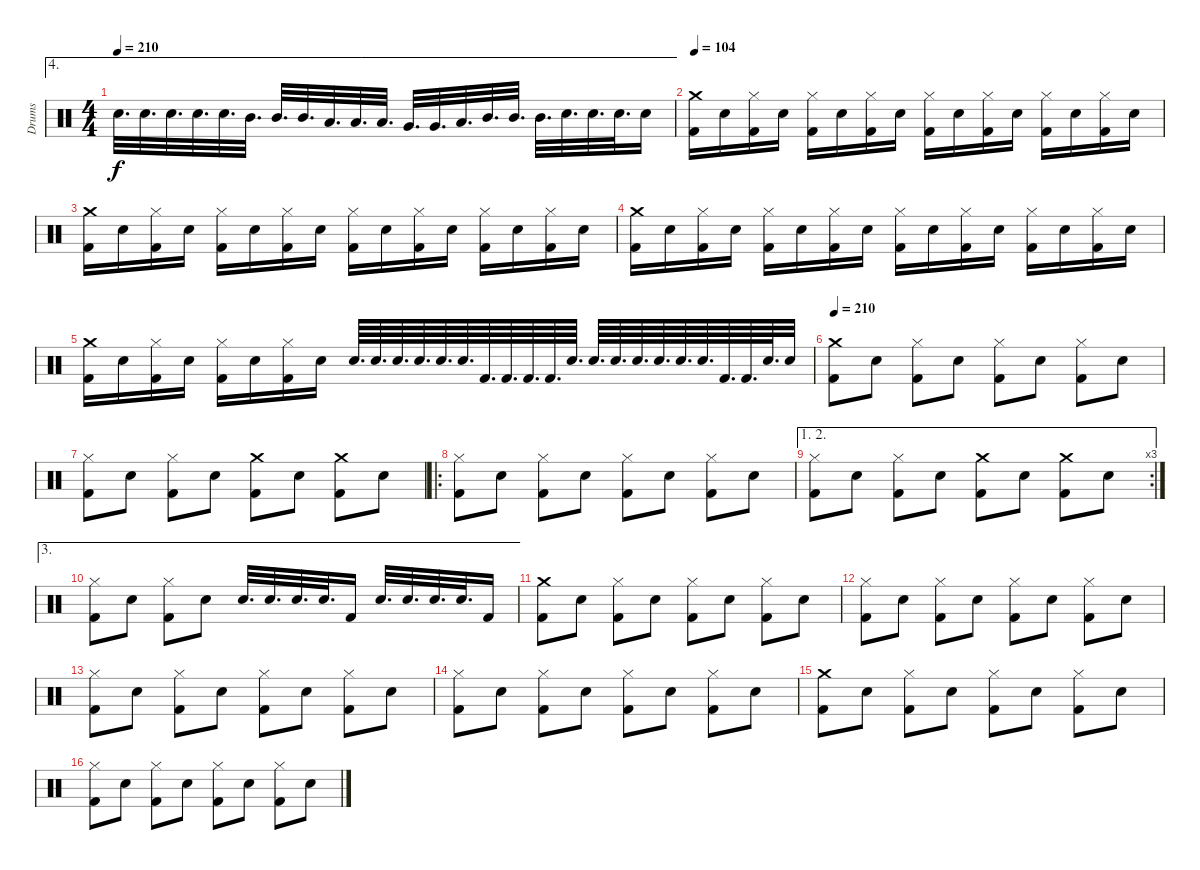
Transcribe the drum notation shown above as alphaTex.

\track ("Drums" "Drums") {instrument percussion}
\staff {score}
\articulation defaults
\ae 4
\ts (4 4)
\tempo 210
\clef neutral
\ks c "Electric Snare (hit)".32{d dy f} "Electric Snare (hit)".32{d} "Electric Snare (hit)".32{d} "Electric Snare (hit)".32{d} "Electric Snare (hit)".32{d} "Mid Tom (hit)".32{d} "Mid Tom (hit)".32{d} "Mid Tom (hit)".32{d} "Low Tom (hit)".32{d} "Low Tom (hit)".32{d} "Low Tom (hit)".32{d} "Very Low Tom (hit)".32{d} "Very Low Tom (hit)".32{d} "Low Tom (hit)".32{d} "Mid Tom (hit)".32{d} "Mid Tom (hit)".32{d} "Mid Tom (hit)".32{d} "Electric Snare (hit)".32{d} "Electric Snare (hit)".32{d} "Electric Snare (hit)".32{d} "Electric Snare (hit)".16
|
\tempo 104
("Crash medium (hit)" "Kick (hit) 2").16 "Electric Snare (hit)".16 ("Hi-Hat (closed)" "Kick (hit) 2").16 "Electric Snare (hit)".16 ("Hi-Hat (closed)" "Kick (hit) 2").16 "Electric Snare (hit)".16 ("Hi-Hat (closed)" "Kick (hit) 2").16 "Electric Snare (hit)".16 ("Hi-Hat (closed)" "Kick (hit) 2").16 "Electric Snare (hit)".16 ("Hi-Hat (closed)" "Kick (hit) 2").16 "Electric Snare (hit)".16 ("Hi-Hat (closed)" "Kick (hit) 2").16 "Electric Snare (hit)".16 ("Hi-Hat (closed)" "Kick (hit) 2").16 "Electric Snare (hit)".16 |
("Crash medium (hit)" "Kick (hit) 2").16 "Electric Snare (hit)".16 ("Hi-Hat (closed)" "Kick (hit) 2").16 "Electric Snare (hit)".16 ("Hi-Hat (closed)" "Kick (hit) 2").16 "Electric Snare (hit)".16 ("Hi-Hat (closed)" "Kick (hit) 2").16 "Electric Snare (hit)".16 ("Hi-Hat (closed)" "Kick (hit) 2").16 "Electric Snare (hit)".16 ("Hi-Hat (closed)" "Kick (hit) 2").16 "Electric Snare (hit)".16 ("Hi-Hat (closed)" "Kick (hit) 2").16 "Electric Snare (hit)".16 ("Hi-Hat (closed)" "Kick (hit) 2").16 "Electric Snare (hit)".16 |
("Crash medium (hit)" "Kick (hit) 2").16 "Electric Snare (hit)".16 ("Hi-Hat (closed)" "Kick (hit) 2").16 "Electric Snare (hit)".16 ("Hi-Hat (closed)" "Kick (hit) 2").16 "Electric Snare (hit)".16 ("Hi-Hat (closed)" "Kick (hit) 2").16 "Electric Snare (hit)".16 ("Hi-Hat (closed)" "Kick (hit) 2").16 "Electric Snare (hit)".16 ("Hi-Hat (closed)" "Kick (hit) 2").16 "Electric Snare (hit)".16 ("Hi-Hat (closed)" "Kick (hit) 2").16 "Electric Snare (hit)".16 ("Hi-Hat (closed)" "Kick (hit) 2").16 "Electric Snare (hit)".16 |
("Crash medium (hit)" "Kick (hit) 2").16 "Electric Snare (hit)".16 ("Hi-Hat (closed)" "Kick (hit) 2").16 "Electric Snare (hit)".16 ("Hi-Hat (closed)" "Kick (hit) 2").16 "Electric Snare (hit)".16 ("Hi-Hat (closed)" "Kick (hit) 2").16 "Electric Snare (hit)".16 "Electric Snare (hit)".64{d} "Electric Snare (hit)".64{d} "Electric Snare (hit)".64{d} "Electric Snare (hit)".64{d} "Electric Snare (hit)".64{d} "Electric Snare (hit)".64{d} "Kick (hit) 2".64{d} "Kick (hit) 2".64{d} "Kick (hit) 2".64{d} "Kick (hit) 2".64{d} "Electric Snare (hit)".64{d} "Electric Snare (hit)".64{d} "Electric Snare (hit)".64{d} "Electric Snare (hit)".64{d} "Electric Snare (hit)".64{d} "Electric Snare (hit)".64{d} "Electric Snare (hit)".64{d} "Kick (hit) 2".64{d} "Kick (hit) 2".64{d} "Electric Snare (hit)".64{d} "Electric Snare (hit)".32 |
\tempo 210
("Crash medium (hit)" "Kick (hit) 2").8 "Electric Snare (hit)".8 ("Hi-Hat (closed)" "Kick (hit) 2").8 "Electric Snare (hit)".8 ("Hi-Hat (closed)" "Kick (hit) 2").8 "Electric Snare (hit)".8 ("Hi-Hat (closed)" "Kick (hit) 2").8 "Electric Snare (hit)".8 |
("Hi-Hat (closed)" "Kick (hit) 2").8 "Electric Snare (hit)".8 ("Hi-Hat (closed)" "Kick (hit) 2").8 "Electric Snare (hit)".8 ("Crash medium (hit)" "Kick (hit) 2").8 "Electric Snare (hit)".8 ("Crash medium (hit)" "Kick (hit) 2").8 "Electric Snare (hit)".8 |
\ro
("Hi-Hat (closed)" "Kick (hit) 2").8 "Electric Snare (hit)".8 ("Hi-Hat (closed)" "Kick (hit) 2").8 "Electric Snare (hit)".8 ("Hi-Hat (closed)" "Kick (hit) 2").8 "Electric Snare (hit)".8 ("Hi-Hat (closed)" "Kick (hit) 2").8 "Electric Snare (hit)".8 |
\ae (1 2)
\rc 3
("Hi-Hat (closed)" "Kick (hit) 2").8 "Electric Snare (hit)".8 ("Hi-Hat (closed)" "Kick (hit) 2").8 "Electric Snare (hit)".8 ("Crash medium (hit)" "Kick (hit) 2").8 "Electric Snare (hit)".8 ("Crash medium (hit)" "Kick (hit) 2").8 "Electric Snare (hit)".8 |
\ae 3
("Hi-Hat (closed)" "Kick (hit) 2").8 "Electric Snare (hit)".8 ("Hi-Hat (closed)" "Kick (hit) 2").8 "Electric Snare (hit)".8 "Electric Snare (hit)".32{d} "Electric Snare (hit)".32{d} "Electric Snare (hit)".32{d} "Electric Snare (hit)".32{d} "Kick (hit) 2".16 "Electric Snare (hit)".32{d} "Electric Snare (hit)".32{d} "Electric Snare (hit)".32{d} "Electric Snare (hit)".32{d} "Kick (hit) 2".16 |
("Crash medium (hit)" "Kick (hit) 2").8 "Electric Snare (hit)".8 ("Hi-Hat (closed)" "Kick (hit) 2").8 "Electric Snare (hit)".8 ("Hi-Hat (closed)" "Kick (hit) 2").8 "Electric Snare (hit)".8 ("Hi-Hat (closed)" "Kick (hit) 2").8 "Electric Snare (hit)".8 |
("Hi-Hat (closed)" "Kick (hit) 2").8 "Electric Snare (hit)".8 ("Hi-Hat (closed)" "Kick (hit) 2").8 "Electric Snare (hit)".8 ("Hi-Hat (closed)" "Kick (hit) 2").8 "Electric Snare (hit)".8 ("Hi-Hat (closed)" "Kick (hit) 2").8 "Electric Snare (hit)".8 |
("Hi-Hat (closed)" "Kick (hit) 2").8 "Electric Snare (hit)".8 ("Hi-Hat (closed)" "Kick (hit) 2").8 "Electric Snare (hit)".8 ("Hi-Hat (closed)" "Kick (hit) 2").8 "Electric Snare (hit)".8 ("Hi-Hat (closed)" "Kick (hit) 2").8 "Electric Snare (hit)".8 |
("Hi-Hat (closed)" "Kick (hit) 2").8 "Electric Snare (hit)".8 ("Hi-Hat (closed)" "Kick (hit) 2").8 "Electric Snare (hit)".8 ("Hi-Hat (closed)" "Kick (hit) 2").8 "Electric Snare (hit)".8 ("Hi-Hat (closed)" "Kick (hit) 2").8 "Electric Snare (hit)".8 |
("Crash medium (hit)" "Kick (hit) 2").8 "Electric Snare (hit)".8 ("Hi-Hat (closed)" "Kick (hit) 2").8 "Electric Snare (hit)".8 ("Hi-Hat (closed)" "Kick (hit) 2").8 "Electric Snare (hit)".8 ("Hi-Hat (closed)" "Kick (hit) 2").8 "Electric Snare (hit)".8 |
("Hi-Hat (closed)" "Kick (hit) 2").8 "Electric Snare (hit)".8 ("Hi-Hat (closed)" "Kick (hit) 2").8 "Electric Snare (hit)".8 ("Hi-Hat (closed)" "Kick (hit) 2").8 "Electric Snare (hit)".8 ("Hi-Hat (closed)" "Kick (hit) 2").8 "Electric Snare (hit)".8
